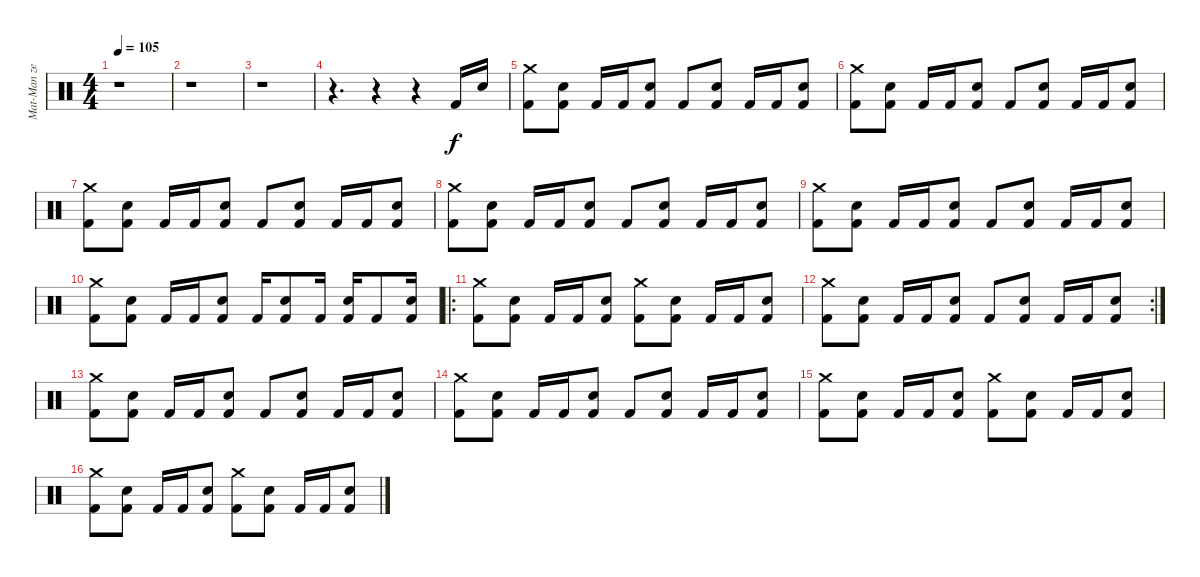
\track ("Mat-Man ze defract" "Mat-Man ze") {instrument percussion}
\staff {score}
\articulation defaults
\ts (4 4)
\tempo 105
\clef neutral
\ks c
r.1{dy f} |
r.1 |
r.1 |
r.4{d} r.4 r.4 "Kick (hit) 2".16 "Snare (hit) 2".16 |
("Crash medium (hit)" "Kick (hit) 2").8 ("Snare (hit) 2" "Kick (hit) 2").8 "Kick (hit) 2".16 "Kick (hit) 2".16 ("Snare (hit) 2" "Kick (hit) 2").8 "Kick (hit) 2".8 ("Snare (hit) 2" "Kick (hit) 2").8 "Kick (hit) 2".16 "Kick (hit) 2".16 ("Snare (hit) 2" "Kick (hit) 2").8 |
("Crash medium (hit)" "Kick (hit) 2").8 ("Snare (hit) 2" "Kick (hit) 2").8 "Kick (hit) 2".16 "Kick (hit) 2".16 ("Snare (hit) 2" "Kick (hit) 2").8 "Kick (hit) 2".8 ("Snare (hit) 2" "Kick (hit) 2").8 "Kick (hit) 2".16 "Kick (hit) 2".16 ("Snare (hit) 2" "Kick (hit) 2").8 |
("Crash medium (hit)" "Kick (hit) 2").8 ("Snare (hit) 2" "Kick (hit) 2").8 "Kick (hit) 2".16 "Kick (hit) 2".16 ("Snare (hit) 2" "Kick (hit) 2").8 "Kick (hit) 2".8 ("Snare (hit) 2" "Kick (hit) 2").8 "Kick (hit) 2".16 "Kick (hit) 2".16 ("Snare (hit) 2" "Kick (hit) 2").8 |
("Crash medium (hit)" "Kick (hit) 2").8 ("Snare (hit) 2" "Kick (hit) 2").8 "Kick (hit) 2".16 "Kick (hit) 2".16 ("Snare (hit) 2" "Kick (hit) 2").8 "Kick (hit) 2".8 ("Snare (hit) 2" "Kick (hit) 2").8 "Kick (hit) 2".16 "Kick (hit) 2".16 ("Snare (hit) 2" "Kick (hit) 2").8 |
("Crash medium (hit)" "Kick (hit) 2").8 ("Snare (hit) 2" "Kick (hit) 2").8 "Kick (hit) 2".16 "Kick (hit) 2".16 ("Snare (hit) 2" "Kick (hit) 2").8 "Kick (hit) 2".8 ("Snare (hit) 2" "Kick (hit) 2").8 "Kick (hit) 2".16 "Kick (hit) 2".16 ("Snare (hit) 2" "Kick (hit) 2").8 |
("Crash medium (hit)" "Kick (hit) 2").8 ("Snare (hit) 2" "Kick (hit) 2").8 "Kick (hit) 2".16 "Kick (hit) 2".16 ("Snare (hit) 2" "Kick (hit) 2").8 "Kick (hit) 2".16 ("Snare (hit) 2" "Kick (hit) 2").8 "Kick (hit) 2".16 ("Snare (hit) 2" "Kick (hit) 2").16 "Kick (hit) 2".8 ("Snare (hit) 2" "Kick (hit) 2").16 |
\ro
("Crash medium (hit)" "Kick (hit) 2").8 ("Snare (hit) 2" "Kick (hit) 2").8 "Kick (hit) 2".16 "Kick (hit) 2".16 ("Snare (hit) 2" "Kick (hit) 2").8 ("Crash medium (hit)" "Kick (hit) 2").8 ("Snare (hit) 2" "Kick (hit) 2").8 "Kick (hit) 2".16 "Kick (hit) 2".16 ("Snare (hit) 2" "Kick (hit) 2").8 |
\rc 2
("Crash medium (hit)" "Kick (hit) 2").8 ("Snare (hit) 2" "Kick (hit) 2").8 "Kick (hit) 2".16 "Kick (hit) 2".16 ("Snare (hit) 2" "Kick (hit) 2").8 "Kick (hit) 2".8 ("Snare (hit) 2" "Kick (hit) 2").8 "Kick (hit) 2".16 "Kick (hit) 2".16 ("Snare (hit) 2" "Kick (hit) 2").8 |
("Crash medium (hit)" "Kick (hit) 2").8 ("Snare (hit) 2" "Kick (hit) 2").8 "Kick (hit) 2".16 "Kick (hit) 2".16 ("Snare (hit) 2" "Kick (hit) 2").8 "Kick (hit) 2".8 ("Snare (hit) 2" "Kick (hit) 2").8 "Kick (hit) 2".16 "Kick (hit) 2".16 ("Snare (hit) 2" "Kick (hit) 2").8 |
("Crash medium (hit)" "Kick (hit) 2").8 ("Snare (hit) 2" "Kick (hit) 2").8 "Kick (hit) 2".16 "Kick (hit) 2".16 ("Snare (hit) 2" "Kick (hit) 2").8 "Kick (hit) 2".8 ("Snare (hit) 2" "Kick (hit) 2").8 "Kick (hit) 2".16 "Kick (hit) 2".16 ("Snare (hit) 2" "Kick (hit) 2").8 |
("Crash medium (hit)" "Kick (hit) 2").8 ("Snare (hit) 2" "Kick (hit) 2").8 "Kick (hit) 2".16 "Kick (hit) 2".16 ("Snare (hit) 2" "Kick (hit) 2").8 ("Crash medium (hit)" "Kick (hit) 2").8 ("Snare (hit) 2" "Kick (hit) 2").8 "Kick (hit) 2".16 "Kick (hit) 2".16 ("Snare (hit) 2" "Kick (hit) 2").8 |
("Crash medium (hit)" "Kick (hit) 2").8 ("Snare (hit) 2" "Kick (hit) 2").8 "Kick (hit) 2".16 "Kick (hit) 2".16 ("Snare (hit) 2" "Kick (hit) 2").8 ("Crash medium (hit)" "Kick (hit) 2").8 ("Snare (hit) 2" "Kick (hit) 2").8 "Kick (hit) 2".16 "Kick (hit) 2".16 ("Snare (hit) 2" "Kick (hit) 2").8
